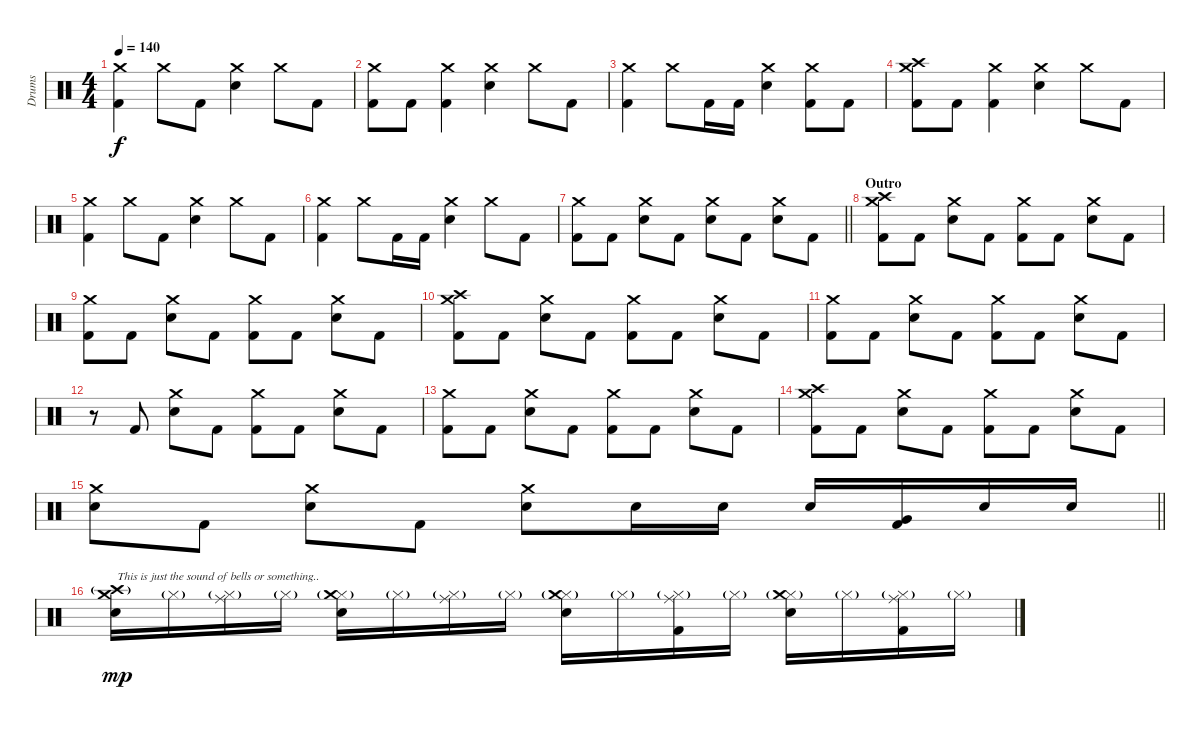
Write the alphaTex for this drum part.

\track ("Drums" "Drums") {instrument percussion}
\staff {score}
\articulation defaults
\ts (4 4)
\tempo 140
\clef neutral
\ks c
("Crash medium (hit)" "Kick (hit) 2").4{dy f} "Crash medium (hit)".8 "Kick (hit) 2".8 ("Crash medium (hit)" "Electric Snare (hit)").4 "Crash medium (hit)".8 "Kick (hit) 2".8 |
("Crash medium (hit)" "Kick (hit) 2").8 "Kick (hit) 2".8 ("Crash medium (hit)" "Kick (hit) 2").4 ("Crash medium (hit)" "Electric Snare (hit)").4 "Crash medium (hit)".8 "Kick (hit) 2".8 |
("Crash medium (hit)" "Kick (hit) 2").4 "Crash medium (hit)".8 "Kick (hit) 2".16 "Kick (hit) 2".16 ("Crash medium (hit)" "Electric Snare (hit)").4 ("Crash medium (hit)" "Kick (hit) 2").8 "Kick (hit) 2".8 |
("Crash high (hit)" "Crash medium (hit)" "Kick (hit) 2").8 "Kick (hit) 2".8 ("Crash medium (hit)" "Kick (hit) 2").4 ("Crash medium (hit)" "Electric Snare (hit)").4 "Crash medium (hit)".8 "Kick (hit) 2".8 |
("Crash medium (hit)" "Kick (hit) 2").4 "Crash medium (hit)".8 "Kick (hit) 2".8 ("Crash medium (hit)" "Electric Snare (hit)").4 "Crash medium (hit)".8 "Kick (hit) 2".8 |
("Crash medium (hit)" "Kick (hit) 2").4 "Crash medium (hit)".8 "Kick (hit) 2".16 "Kick (hit) 2".16 ("Crash medium (hit)" "Electric Snare (hit)").4 "Crash medium (hit)".8 "Kick (hit) 2".8 |
\barLineRight lightlight
("Crash medium (hit)" "Kick (hit) 2").8 "Kick (hit) 2".8 ("Crash medium (hit)" "Electric Snare (hit)").8 "Kick (hit) 2".8 ("Crash medium (hit)" "Electric Snare (hit)").8 "Kick (hit) 2".8 ("Crash medium (hit)" "Electric Snare (hit)").8 "Kick (hit) 2".8 |
\section ("" "Outro")
("Crash high (hit)" "Crash medium (hit)" "Kick (hit) 2").8 "Kick (hit) 2".8 ("Crash medium (hit)" "Electric Snare (hit)").8 "Kick (hit) 2".8 ("Crash medium (hit)" "Kick (hit) 2").8 "Kick (hit) 2".8 ("Crash medium (hit)" "Electric Snare (hit)").8 "Kick (hit) 2".8 |
("Crash medium (hit)" "Kick (hit) 2").8 "Kick (hit) 2".8 ("Crash medium (hit)" "Electric Snare (hit)").8 "Kick (hit) 2".8 ("Crash medium (hit)" "Kick (hit) 2").8 "Kick (hit) 2".8 ("Crash medium (hit)" "Electric Snare (hit)").8 "Kick (hit) 2".8 |
("Crash high (hit)" "Crash medium (hit)" "Kick (hit) 2").8 "Kick (hit) 2".8 ("Crash medium (hit)" "Electric Snare (hit)").8 "Kick (hit) 2".8 ("Crash medium (hit)" "Kick (hit) 2").8 "Kick (hit) 2".8 ("Crash medium (hit)" "Electric Snare (hit)").8 "Kick (hit) 2".8 |
("Crash medium (hit)" "Kick (hit) 2").8 "Kick (hit) 2".8 ("Crash medium (hit)" "Electric Snare (hit)").8 "Kick (hit) 2".8 ("Crash medium (hit)" "Kick (hit) 2").8 "Kick (hit) 2".8 ("Crash medium (hit)" "Electric Snare (hit)").8 "Kick (hit) 2".8 |
r.8 "Kick (hit) 2".8 ("Crash medium (hit)" "Electric Snare (hit)").8 "Kick (hit) 2".8 ("Crash medium (hit)" "Kick (hit) 2").8 "Kick (hit) 2".8 ("Crash medium (hit)" "Electric Snare (hit)").8 "Kick (hit) 2".8 |
("Crash medium (hit)" "Kick (hit) 2").8 "Kick (hit) 2".8 ("Crash medium (hit)" "Electric Snare (hit)").8 "Kick (hit) 2".8 ("Crash medium (hit)" "Kick (hit) 2").8 "Kick (hit) 2".8 ("Crash medium (hit)" "Electric Snare (hit)").8 "Kick (hit) 2".8 |
("Crash high (hit)" "Crash medium (hit)" "Kick (hit) 2").8 "Kick (hit) 2".8 ("Crash medium (hit)" "Electric Snare (hit)").8 "Kick (hit) 2".8 ("Crash medium (hit)" "Kick (hit) 2").8 "Kick (hit) 2".8 ("Crash medium (hit)" "Electric Snare (hit)").8 "Kick (hit) 2".8 |
\barLineRight lightlight
("Crash medium (hit)" "Electric Snare (hit)").8 "Kick (hit) 2".8 ("Crash medium (hit)" "Electric Snare (hit)").8 "Kick (hit) 2".8 ("Crash medium (hit)" "Electric Snare (hit)").8 "Electric Snare (hit)".16 "Electric Snare (hit)".16 "Electric Snare (hit)".16 ("Very Low Tom (hit)" "Kick (hit) 2").16 "Electric Snare (hit)".16 "Electric Snare (hit)".16 |
("Crash high (hit)"{g} "Crash medium (hit)" "Electric Snare (hit)").16{txt "This is just the sound of bells or something.." dy mp} "Hi-Hat (closed)"{g}.16 ("Hi-Hat (closed)"{g} "Ride (middle)").16 "Hi-Hat (closed)"{g}.16 ("Hi-Hat (closed)"{g} "Crash medium (hit)" "Electric Snare (hit)").16 "Hi-Hat (closed)"{g}.16 ("Hi-Hat (closed)"{g} "Ride (middle)").16 "Hi-Hat (closed)"{g}.16 ("Hi-Hat (closed)"{g} "Crash medium (hit)" "Electric Snare (hit)").16 "Hi-Hat (closed)"{g}.16 ("Hi-Hat (closed)"{g} "Ride (middle)" "Kick (hit) 2").16 "Hi-Hat (closed)"{g}.16 ("Hi-Hat (closed)"{g} "Crash medium (hit)" "Electric Snare (hit)").16 "Hi-Hat (closed)"{g}.16 ("Hi-Hat (closed)"{g} "Ride (middle)" "Kick (hit) 2").16 "Hi-Hat (closed)"{g}.16
